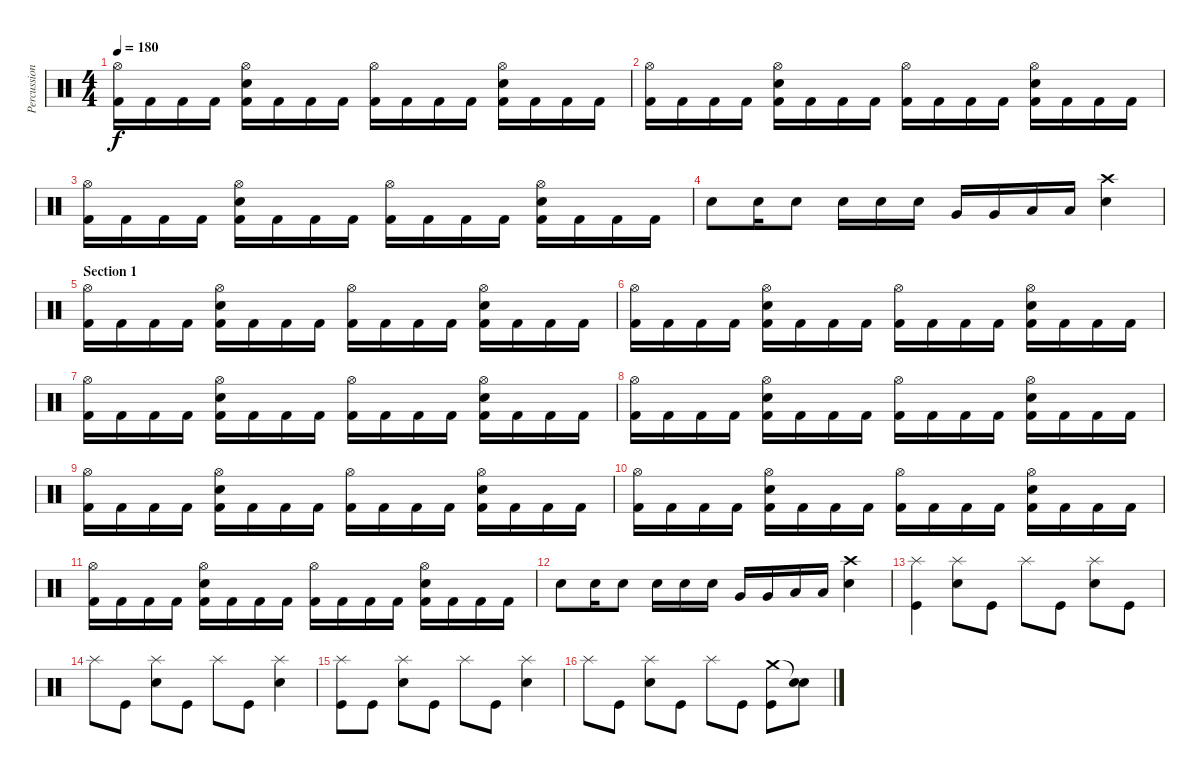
\track ("Percussion" "Percussion") {instrument percussion}
\staff {score}
\articulation defaults
\ts (4 4)
\tempo 180
\clef neutral
\ks c
("Hi-Hat (open)" "Kick (hit) 2").16{dy f} "Kick (hit) 2".16 "Kick (hit) 2".16 "Kick (hit) 2".16 ("Hi-Hat (open)" "Electric Snare (hit)" "Kick (hit) 2").16 "Kick (hit) 2".16 "Kick (hit) 2".16 "Kick (hit) 2".16 ("Hi-Hat (open)" "Kick (hit) 2").16 "Kick (hit) 2".16 "Kick (hit) 2".16 "Kick (hit) 2".16 ("Hi-Hat (open)" "Electric Snare (hit)" "Kick (hit) 2").16 "Kick (hit) 2".16 "Kick (hit) 2".16 "Kick (hit) 2".16 |
("Hi-Hat (open)" "Kick (hit) 2").16 "Kick (hit) 2".16 "Kick (hit) 2".16 "Kick (hit) 2".16 ("Hi-Hat (open)" "Electric Snare (hit)" "Kick (hit) 2").16 "Kick (hit) 2".16 "Kick (hit) 2".16 "Kick (hit) 2".16 ("Hi-Hat (open)" "Kick (hit) 2").16 "Kick (hit) 2".16 "Kick (hit) 2".16 "Kick (hit) 2".16 ("Hi-Hat (open)" "Electric Snare (hit)" "Kick (hit) 2").16 "Kick (hit) 2".16 "Kick (hit) 2".16 "Kick (hit) 2".16 |
("Hi-Hat (open)" "Kick (hit) 2").16 "Kick (hit) 2".16 "Kick (hit) 2".16 "Kick (hit) 2".16 ("Hi-Hat (open)" "Electric Snare (hit)" "Kick (hit) 2").16 "Kick (hit) 2".16 "Kick (hit) 2".16 "Kick (hit) 2".16 ("Hi-Hat (open)" "Kick (hit) 2").16 "Kick (hit) 2".16 "Kick (hit) 2".16 "Kick (hit) 2".16 ("Hi-Hat (open)" "Electric Snare (hit)" "Kick (hit) 2").16 "Kick (hit) 2".16 "Kick (hit) 2".16 "Kick (hit) 2".16 |
"Electric Snare (hit)".8 "Electric Snare (hit)".16 "Electric Snare (hit)".8 "Electric Snare (hit)".16 "Electric Snare (hit)".16 "Electric Snare (hit)".16 "Very Low Tom (hit)".16 "Very Low Tom (hit)".16 "Low Floor Tom (hit)".16 "Low Floor Tom (hit)".16 ("Crash high (hit)" "Electric Snare (hit)").4 |
\section ("" "Section 1")
("Hi-Hat (open)" "Kick (hit) 2").16 "Kick (hit) 2".16 "Kick (hit) 2".16 "Kick (hit) 2".16 ("Hi-Hat (open)" "Electric Snare (hit)" "Kick (hit) 2").16 "Kick (hit) 2".16 "Kick (hit) 2".16 "Kick (hit) 2".16 ("Hi-Hat (open)" "Kick (hit) 2").16 "Kick (hit) 2".16 "Kick (hit) 2".16 "Kick (hit) 2".16 ("Hi-Hat (open)" "Electric Snare (hit)" "Kick (hit) 2").16 "Kick (hit) 2".16 "Kick (hit) 2".16 "Kick (hit) 2".16 |
("Hi-Hat (open)" "Kick (hit) 2").16 "Kick (hit) 2".16 "Kick (hit) 2".16 "Kick (hit) 2".16 ("Hi-Hat (open)" "Electric Snare (hit)" "Kick (hit) 2").16 "Kick (hit) 2".16 "Kick (hit) 2".16 "Kick (hit) 2".16 ("Hi-Hat (open)" "Kick (hit) 2").16 "Kick (hit) 2".16 "Kick (hit) 2".16 "Kick (hit) 2".16 ("Hi-Hat (open)" "Electric Snare (hit)" "Kick (hit) 2").16 "Kick (hit) 2".16 "Kick (hit) 2".16 "Kick (hit) 2".16 |
("Hi-Hat (open)" "Kick (hit) 2").16 "Kick (hit) 2".16 "Kick (hit) 2".16 "Kick (hit) 2".16 ("Hi-Hat (open)" "Electric Snare (hit)" "Kick (hit) 2").16 "Kick (hit) 2".16 "Kick (hit) 2".16 "Kick (hit) 2".16 ("Hi-Hat (open)" "Kick (hit) 2").16 "Kick (hit) 2".16 "Kick (hit) 2".16 "Kick (hit) 2".16 ("Hi-Hat (open)" "Electric Snare (hit)" "Kick (hit) 2").16 "Kick (hit) 2".16 "Kick (hit) 2".16 "Kick (hit) 2".16 |
("Hi-Hat (open)" "Kick (hit) 2").16 "Kick (hit) 2".16 "Kick (hit) 2".16 "Kick (hit) 2".16 ("Hi-Hat (open)" "Electric Snare (hit)" "Kick (hit) 2").16 "Kick (hit) 2".16 "Kick (hit) 2".16 "Kick (hit) 2".16 ("Hi-Hat (open)" "Kick (hit) 2").16 "Kick (hit) 2".16 "Kick (hit) 2".16 "Kick (hit) 2".16 ("Hi-Hat (open)" "Electric Snare (hit)" "Kick (hit) 2").16 "Kick (hit) 2".16 "Kick (hit) 2".16 "Kick (hit) 2".16 |
("Hi-Hat (open)" "Kick (hit) 2").16 "Kick (hit) 2".16 "Kick (hit) 2".16 "Kick (hit) 2".16 ("Hi-Hat (open)" "Electric Snare (hit)" "Kick (hit) 2").16 "Kick (hit) 2".16 "Kick (hit) 2".16 "Kick (hit) 2".16 ("Hi-Hat (open)" "Kick (hit) 2").16 "Kick (hit) 2".16 "Kick (hit) 2".16 "Kick (hit) 2".16 ("Hi-Hat (open)" "Electric Snare (hit)" "Kick (hit) 2").16 "Kick (hit) 2".16 "Kick (hit) 2".16 "Kick (hit) 2".16 |
("Hi-Hat (open)" "Kick (hit) 2").16 "Kick (hit) 2".16 "Kick (hit) 2".16 "Kick (hit) 2".16 ("Hi-Hat (open)" "Electric Snare (hit)" "Kick (hit) 2").16 "Kick (hit) 2".16 "Kick (hit) 2".16 "Kick (hit) 2".16 ("Hi-Hat (open)" "Kick (hit) 2").16 "Kick (hit) 2".16 "Kick (hit) 2".16 "Kick (hit) 2".16 ("Hi-Hat (open)" "Electric Snare (hit)" "Kick (hit) 2").16 "Kick (hit) 2".16 "Kick (hit) 2".16 "Kick (hit) 2".16 |
("Hi-Hat (open)" "Kick (hit) 2").16 "Kick (hit) 2".16 "Kick (hit) 2".16 "Kick (hit) 2".16 ("Hi-Hat (open)" "Electric Snare (hit)" "Kick (hit) 2").16 "Kick (hit) 2".16 "Kick (hit) 2".16 "Kick (hit) 2".16 ("Hi-Hat (open)" "Kick (hit) 2").16 "Kick (hit) 2".16 "Kick (hit) 2".16 "Kick (hit) 2".16 ("Hi-Hat (open)" "Electric Snare (hit)" "Kick (hit) 2").16 "Kick (hit) 2".16 "Kick (hit) 2".16 "Kick (hit) 2".16 |
"Electric Snare (hit)".8 "Electric Snare (hit)".16 "Electric Snare (hit)".8 "Electric Snare (hit)".16 "Electric Snare (hit)".16 "Electric Snare (hit)".16 "Very Low Tom (hit)".16 "Very Low Tom (hit)".16 "Low Floor Tom (hit)".16 "Low Floor Tom (hit)".16 ("Crash high (hit)" "Electric Snare (hit)").4 |
("Splash (hit)" "Kick (hit)").4 ("Splash (hit)" "Electric Snare (hit)").8 "Kick (hit)".8 "Splash (hit)".8 "Kick (hit)".8 ("Splash (hit)" "Electric Snare (hit)").8 "Kick (hit)".8 |
"Splash (hit)".8 "Kick (hit)".8 ("Splash (hit)" "Electric Snare (hit)").8 "Kick (hit)".8 "Splash (hit)".8 "Kick (hit)".8 ("Splash (hit)" "Electric Snare (hit)").4 |
("Splash (hit)" "Kick (hit)").8 "Kick (hit)".8 ("Splash (hit)" "Electric Snare (hit)").8 "Kick (hit)".8 "Splash (hit)".8 "Kick (hit)".8 ("Splash (hit)" "Electric Snare (hit)").4 |
"Splash (hit)".8 "Kick (hit)".8 ("Splash (hit)" "Electric Snare (hit)").8 "Kick (hit)".8 "Splash (hit)".8 "Kick (hit)".8 ("Crash medium (hit)" "Kick (hit)").8 ("Snare (hit)"{t} "Electric Snare (hit)").8
